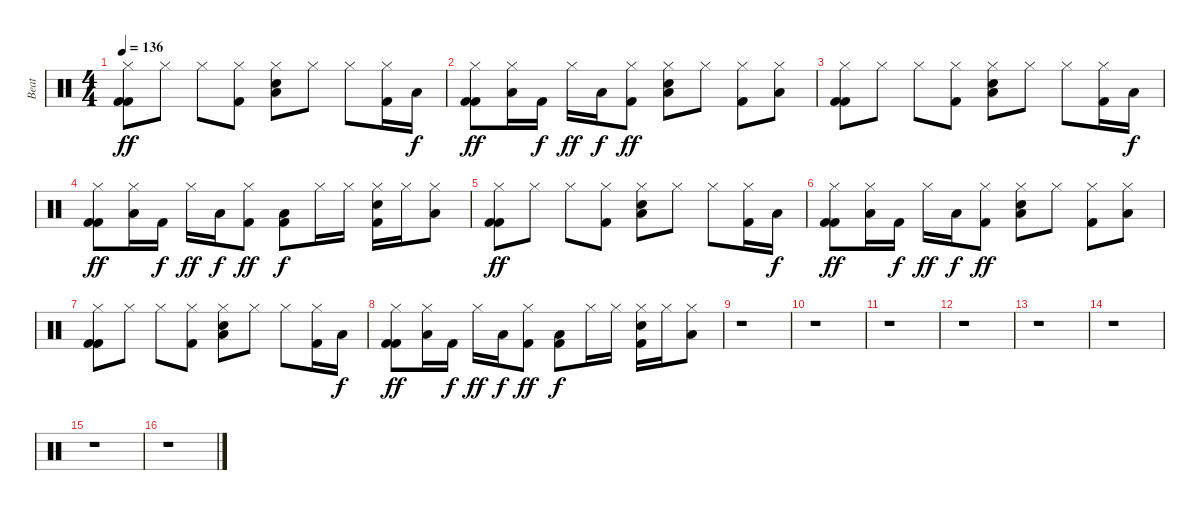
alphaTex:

\track ("Beat" "Beat") {instrument percussion}
\staff {score}
\articulation defaults
\ts (4 4)
\tempo 136
\clef neutral
\ks c
("Kick (hit) 2" "Hi-Hat (closed)" "Kick (hit) 2").8{dy ff} "Hi-Hat (closed)".8 "Hi-Hat (closed)".8 ("Hi-Hat (closed)" "Kick (hit) 2").8 ("Snare (hit) 2" "Hi-Hat (closed)" "Low Tom (hit)").8 "Hi-Hat (closed)".8 "Hi-Hat (closed)".8 ("Hi-Hat (closed)" "Kick (hit) 2").16 "Low Tom (hit)".16{dy f} |
("Kick (hit) 2" "Hi-Hat (closed)" "Kick (hit) 2").8{dy ff} ("Hi-Hat (closed)" "Low Tom (hit)").16 "Kick (hit) 2".16{dy f} "Hi-Hat (closed)".16{dy ff} "Low Tom (hit)".16{dy f} ("Hi-Hat (closed)" "Kick (hit) 2").8{dy ff} ("Snare (hit) 2" "Hi-Hat (closed)" "Low Tom (hit)").8 "Hi-Hat (closed)".8 ("Hi-Hat (closed)" "Kick (hit) 2").8 ("Hi-Hat (closed)" "Low Tom (hit)").8 |
("Kick (hit) 2" "Hi-Hat (closed)" "Kick (hit) 2").8 "Hi-Hat (closed)".8 "Hi-Hat (closed)".8 ("Hi-Hat (closed)" "Kick (hit) 2").8 ("Snare (hit) 2" "Hi-Hat (closed)" "Low Tom (hit)").8 "Hi-Hat (closed)".8 "Hi-Hat (closed)".8 ("Hi-Hat (closed)" "Kick (hit) 2").16 "Low Tom (hit)".16{dy f} |
("Kick (hit) 2" "Hi-Hat (closed)" "Kick (hit) 2").8{dy ff} ("Hi-Hat (closed)" "Low Tom (hit)").16 "Kick (hit) 2".16{dy f} "Hi-Hat (closed)".16{dy ff} "Low Tom (hit)".16{dy f} ("Hi-Hat (closed)" "Kick (hit) 2").8{dy ff} ("Kick (hit) 2" "Low Tom (hit)").8{dy f} "Hi-Hat (closed)".16 "Hi-Hat (closed)".16 ("Snare (hit) 2" "Hi-Hat (closed)" "Kick (hit) 2").16 "Hi-Hat (closed)".16 ("Hi-Hat (closed)" "Low Tom (hit)").8 |
("Kick (hit) 2" "Hi-Hat (closed)" "Kick (hit) 2").8{dy ff} "Hi-Hat (closed)".8 "Hi-Hat (closed)".8 ("Hi-Hat (closed)" "Kick (hit) 2").8 ("Snare (hit) 2" "Hi-Hat (closed)" "Low Tom (hit)").8 "Hi-Hat (closed)".8 "Hi-Hat (closed)".8 ("Hi-Hat (closed)" "Kick (hit) 2").16 "Low Tom (hit)".16{dy f} |
("Kick (hit) 2" "Hi-Hat (closed)" "Kick (hit) 2").8{dy ff} ("Hi-Hat (closed)" "Low Tom (hit)").16 "Kick (hit) 2".16{dy f} "Hi-Hat (closed)".16{dy ff} "Low Tom (hit)".16{dy f} ("Hi-Hat (closed)" "Kick (hit) 2").8{dy ff} ("Snare (hit) 2" "Hi-Hat (closed)" "Low Tom (hit)").8 "Hi-Hat (closed)".8 ("Hi-Hat (closed)" "Kick (hit) 2").8 ("Hi-Hat (closed)" "Low Tom (hit)").8 |
("Kick (hit) 2" "Hi-Hat (closed)" "Kick (hit) 2").8 "Hi-Hat (closed)".8 "Hi-Hat (closed)".8 ("Hi-Hat (closed)" "Kick (hit) 2").8 ("Snare (hit) 2" "Hi-Hat (closed)" "Low Tom (hit)").8 "Hi-Hat (closed)".8 "Hi-Hat (closed)".8 ("Hi-Hat (closed)" "Kick (hit) 2").16 "Low Tom (hit)".16{dy f} |
("Kick (hit) 2" "Hi-Hat (closed)" "Kick (hit) 2").8{dy ff} ("Hi-Hat (closed)" "Low Tom (hit)").16 "Kick (hit) 2".16{dy f} "Hi-Hat (closed)".16{dy ff} "Low Tom (hit)".16{dy f} ("Hi-Hat (closed)" "Kick (hit) 2").8{dy ff} ("Kick (hit) 2" "Low Tom (hit)").8{dy f} "Hi-Hat (closed)".16 "Hi-Hat (closed)".16 ("Snare (hit) 2" "Hi-Hat (closed)" "Kick (hit) 2").16 "Hi-Hat (closed)".16 ("Hi-Hat (closed)" "Low Tom (hit)").8 |
r.1 |
r.1 |
r.1 |
r.1 |
r.1 |
r.1 |
r.1 |
r.1
